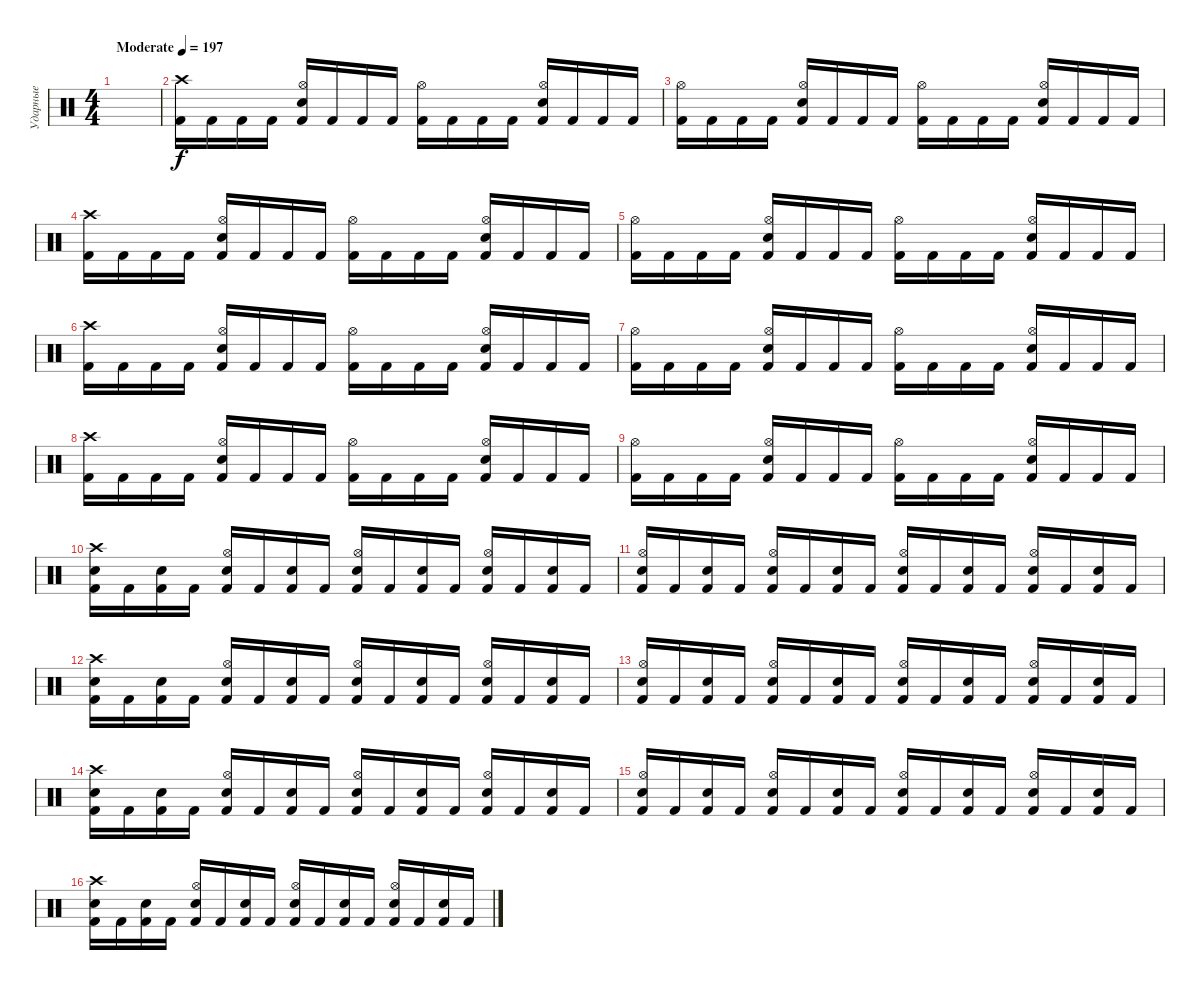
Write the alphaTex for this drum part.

\track ("Ударные" "Ударные") {instrument percussion}
\staff {score}
\articulation defaults
\ts (4 4)
\tempo (197 "Moderate")
\clef neutral
\ks c
|
("Crash high (hit)" "Kick (hit) 2").16 "Kick (hit) 2".16 "Kick (hit) 2".16 "Kick (hit) 2".16 ("Hi-Hat (open)" "Snare (hit) 2" "Kick (hit) 2").16 "Kick (hit) 2".16 "Kick (hit) 2".16 "Kick (hit) 2".16 ("Hi-Hat (open)" "Kick (hit) 2").16 "Kick (hit) 2".16 "Kick (hit) 2".16 "Kick (hit) 2".16 ("Hi-Hat (open)" "Snare (hit) 2" "Kick (hit) 2").16 "Kick (hit) 2".16 "Kick (hit) 2".16 "Kick (hit) 2".16 |
("Hi-Hat (open)" "Kick (hit) 2").16 "Kick (hit) 2".16 "Kick (hit) 2".16 "Kick (hit) 2".16 ("Hi-Hat (open)" "Snare (hit) 2" "Kick (hit) 2").16 "Kick (hit) 2".16 "Kick (hit) 2".16 "Kick (hit) 2".16 ("Hi-Hat (open)" "Kick (hit) 2").16 "Kick (hit) 2".16 "Kick (hit) 2".16 "Kick (hit) 2".16 ("Hi-Hat (open)" "Snare (hit) 2" "Kick (hit) 2").16 "Kick (hit) 2".16 "Kick (hit) 2".16 "Kick (hit) 2".16 |
("Crash high (hit)" "Kick (hit) 2").16 "Kick (hit) 2".16 "Kick (hit) 2".16 "Kick (hit) 2".16 ("Hi-Hat (open)" "Snare (hit) 2" "Kick (hit) 2").16 "Kick (hit) 2".16 "Kick (hit) 2".16 "Kick (hit) 2".16 ("Hi-Hat (open)" "Kick (hit) 2").16 "Kick (hit) 2".16 "Kick (hit) 2".16 "Kick (hit) 2".16 ("Hi-Hat (open)" "Snare (hit) 2" "Kick (hit) 2").16 "Kick (hit) 2".16 "Kick (hit) 2".16 "Kick (hit) 2".16 |
("Hi-Hat (open)" "Kick (hit) 2").16 "Kick (hit) 2".16 "Kick (hit) 2".16 "Kick (hit) 2".16 ("Hi-Hat (open)" "Snare (hit) 2" "Kick (hit) 2").16 "Kick (hit) 2".16 "Kick (hit) 2".16 "Kick (hit) 2".16 ("Hi-Hat (open)" "Kick (hit) 2").16 "Kick (hit) 2".16 "Kick (hit) 2".16 "Kick (hit) 2".16 ("Hi-Hat (open)" "Snare (hit) 2" "Kick (hit) 2").16 "Kick (hit) 2".16 "Kick (hit) 2".16 "Kick (hit) 2".16 |
("Crash high (hit)" "Kick (hit) 2").16 "Kick (hit) 2".16 "Kick (hit) 2".16 "Kick (hit) 2".16 ("Hi-Hat (open)" "Snare (hit) 2" "Kick (hit) 2").16 "Kick (hit) 2".16 "Kick (hit) 2".16 "Kick (hit) 2".16 ("Hi-Hat (open)" "Kick (hit) 2").16 "Kick (hit) 2".16 "Kick (hit) 2".16 "Kick (hit) 2".16 ("Hi-Hat (open)" "Snare (hit) 2" "Kick (hit) 2").16 "Kick (hit) 2".16 "Kick (hit) 2".16 "Kick (hit) 2".16 |
("Hi-Hat (open)" "Kick (hit) 2").16 "Kick (hit) 2".16 "Kick (hit) 2".16 "Kick (hit) 2".16 ("Hi-Hat (open)" "Snare (hit) 2" "Kick (hit) 2").16 "Kick (hit) 2".16 "Kick (hit) 2".16 "Kick (hit) 2".16 ("Hi-Hat (open)" "Kick (hit) 2").16 "Kick (hit) 2".16 "Kick (hit) 2".16 "Kick (hit) 2".16 ("Hi-Hat (open)" "Snare (hit) 2" "Kick (hit) 2").16 "Kick (hit) 2".16 "Kick (hit) 2".16 "Kick (hit) 2".16 |
("Crash high (hit)" "Kick (hit) 2").16 "Kick (hit) 2".16 "Kick (hit) 2".16 "Kick (hit) 2".16 ("Hi-Hat (open)" "Snare (hit) 2" "Kick (hit) 2").16 "Kick (hit) 2".16 "Kick (hit) 2".16 "Kick (hit) 2".16 ("Hi-Hat (open)" "Kick (hit) 2").16 "Kick (hit) 2".16 "Kick (hit) 2".16 "Kick (hit) 2".16 ("Hi-Hat (open)" "Snare (hit) 2" "Kick (hit) 2").16 "Kick (hit) 2".16 "Kick (hit) 2".16 "Kick (hit) 2".16 |
("Hi-Hat (open)" "Kick (hit) 2").16 "Kick (hit) 2".16 "Kick (hit) 2".16 "Kick (hit) 2".16 ("Hi-Hat (open)" "Snare (hit) 2" "Kick (hit) 2").16 "Kick (hit) 2".16 "Kick (hit) 2".16 "Kick (hit) 2".16 ("Hi-Hat (open)" "Kick (hit) 2").16 "Kick (hit) 2".16 "Kick (hit) 2".16 "Kick (hit) 2".16 ("Hi-Hat (open)" "Snare (hit) 2" "Kick (hit) 2").16 "Kick (hit) 2".16 "Kick (hit) 2".16 "Kick (hit) 2".16 |
("Crash high (hit)" "Snare (hit) 2" "Kick (hit) 2").16 "Kick (hit) 2".16 ("Snare (hit) 2" "Kick (hit) 2").16 "Kick (hit) 2".16 ("Hi-Hat (open)" "Snare (hit) 2" "Kick (hit) 2").16 "Kick (hit) 2".16 ("Snare (hit) 2" "Kick (hit) 2").16 "Kick (hit) 2".16 ("Hi-Hat (open)" "Snare (hit) 2" "Kick (hit) 2").16 "Kick (hit) 2".16 ("Snare (hit) 2" "Kick (hit) 2").16 "Kick (hit) 2".16 ("Hi-Hat (open)" "Snare (hit) 2" "Kick (hit) 2").16 "Kick (hit) 2".16 ("Snare (hit) 2" "Kick (hit) 2").16 "Kick (hit) 2".16 |
("Hi-Hat (open)" "Snare (hit) 2" "Kick (hit) 2").16 "Kick (hit) 2".16 ("Snare (hit) 2" "Kick (hit) 2").16 "Kick (hit) 2".16 ("Hi-Hat (open)" "Snare (hit) 2" "Kick (hit) 2").16 "Kick (hit) 2".16 ("Snare (hit) 2" "Kick (hit) 2").16 "Kick (hit) 2".16 ("Hi-Hat (open)" "Snare (hit) 2" "Kick (hit) 2").16 "Kick (hit) 2".16 ("Snare (hit) 2" "Kick (hit) 2").16 "Kick (hit) 2".16 ("Hi-Hat (open)" "Snare (hit) 2" "Kick (hit) 2").16 "Kick (hit) 2".16 ("Snare (hit) 2" "Kick (hit) 2").16 "Kick (hit) 2".16 |
("Crash high (hit)" "Snare (hit) 2" "Kick (hit) 2").16 "Kick (hit) 2".16 ("Snare (hit) 2" "Kick (hit) 2").16 "Kick (hit) 2".16 ("Hi-Hat (open)" "Snare (hit) 2" "Kick (hit) 2").16 "Kick (hit) 2".16 ("Snare (hit) 2" "Kick (hit) 2").16 "Kick (hit) 2".16 ("Hi-Hat (open)" "Snare (hit) 2" "Kick (hit) 2").16 "Kick (hit) 2".16 ("Snare (hit) 2" "Kick (hit) 2").16 "Kick (hit) 2".16 ("Hi-Hat (open)" "Snare (hit) 2" "Kick (hit) 2").16 "Kick (hit) 2".16 ("Snare (hit) 2" "Kick (hit) 2").16 "Kick (hit) 2".16 |
("Hi-Hat (open)" "Snare (hit) 2" "Kick (hit) 2").16 "Kick (hit) 2".16 ("Snare (hit) 2" "Kick (hit) 2").16 "Kick (hit) 2".16 ("Hi-Hat (open)" "Snare (hit) 2" "Kick (hit) 2").16 "Kick (hit) 2".16 ("Snare (hit) 2" "Kick (hit) 2").16 "Kick (hit) 2".16 ("Hi-Hat (open)" "Snare (hit) 2" "Kick (hit) 2").16 "Kick (hit) 2".16 ("Snare (hit) 2" "Kick (hit) 2").16 "Kick (hit) 2".16 ("Hi-Hat (open)" "Snare (hit) 2" "Kick (hit) 2").16 "Kick (hit) 2".16 ("Snare (hit) 2" "Kick (hit) 2").16 "Kick (hit) 2".16 |
("Crash high (hit)" "Snare (hit) 2" "Kick (hit) 2").16 "Kick (hit) 2".16 ("Snare (hit) 2" "Kick (hit) 2").16 "Kick (hit) 2".16 ("Hi-Hat (open)" "Snare (hit) 2" "Kick (hit) 2").16 "Kick (hit) 2".16 ("Snare (hit) 2" "Kick (hit) 2").16 "Kick (hit) 2".16 ("Hi-Hat (open)" "Snare (hit) 2" "Kick (hit) 2").16 "Kick (hit) 2".16 ("Snare (hit) 2" "Kick (hit) 2").16 "Kick (hit) 2".16 ("Hi-Hat (open)" "Snare (hit) 2" "Kick (hit) 2").16 "Kick (hit) 2".16 ("Snare (hit) 2" "Kick (hit) 2").16 "Kick (hit) 2".16 |
("Hi-Hat (open)" "Snare (hit) 2" "Kick (hit) 2").16 "Kick (hit) 2".16 ("Snare (hit) 2" "Kick (hit) 2").16 "Kick (hit) 2".16 ("Hi-Hat (open)" "Snare (hit) 2" "Kick (hit) 2").16 "Kick (hit) 2".16 ("Snare (hit) 2" "Kick (hit) 2").16 "Kick (hit) 2".16 ("Hi-Hat (open)" "Snare (hit) 2" "Kick (hit) 2").16 "Kick (hit) 2".16 ("Snare (hit) 2" "Kick (hit) 2").16 "Kick (hit) 2".16 ("Hi-Hat (open)" "Snare (hit) 2" "Kick (hit) 2").16 "Kick (hit) 2".16 ("Snare (hit) 2" "Kick (hit) 2").16 "Kick (hit) 2".16 |
("Crash high (hit)" "Snare (hit) 2" "Kick (hit) 2").16 "Kick (hit) 2".16 ("Snare (hit) 2" "Kick (hit) 2").16 "Kick (hit) 2".16 ("Hi-Hat (open)" "Snare (hit) 2" "Kick (hit) 2").16 "Kick (hit) 2".16 ("Snare (hit) 2" "Kick (hit) 2").16 "Kick (hit) 2".16 ("Hi-Hat (open)" "Snare (hit) 2" "Kick (hit) 2").16 "Kick (hit) 2".16 ("Snare (hit) 2" "Kick (hit) 2").16 "Kick (hit) 2".16 ("Hi-Hat (open)" "Snare (hit) 2" "Kick (hit) 2").16 "Kick (hit) 2".16 ("Snare (hit) 2" "Kick (hit) 2").16 "Kick (hit) 2".16
